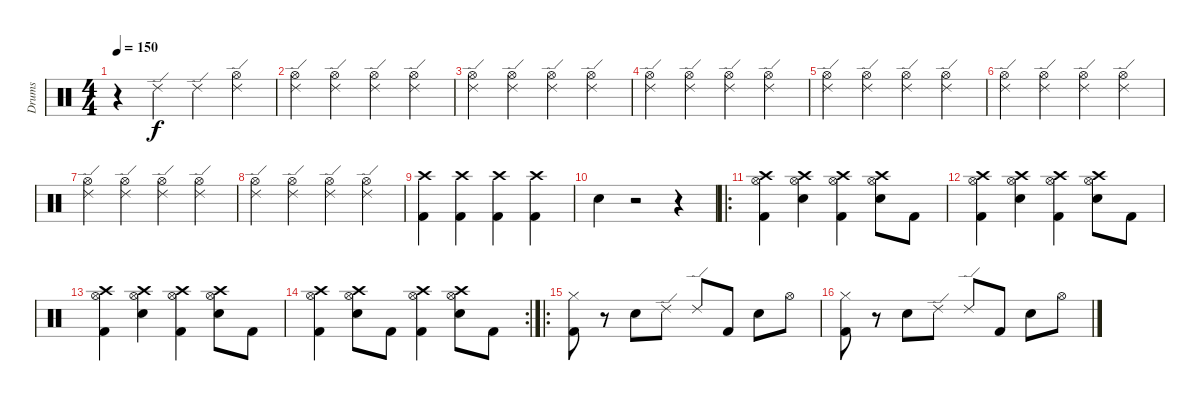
\track ("Drums" "Drums") {instrument percussion}
\staff {score}
\articulation defaults
\ts (4 4)
\tempo 150
\clef neutral
\ks c
r.4{dy f} "Ride (edge) 2".4 "Ride (edge) 2".4 ("Ride (edge) 2" "Hi-Hat (open)").4 |
("Ride (edge) 2" "Hi-Hat (open)").4 ("Ride (edge) 2" "Hi-Hat (open)").4 ("Ride (edge) 2" "Hi-Hat (open)").4 ("Ride (edge) 2" "Hi-Hat (open)").4 |
("Ride (edge) 2" "Hi-Hat (open)").4 ("Ride (edge) 2" "Hi-Hat (open)").4 ("Ride (edge) 2" "Hi-Hat (open)").4 ("Ride (edge) 2" "Hi-Hat (open)").4 |
("Ride (edge) 2" "Hi-Hat (open)").4 ("Ride (edge) 2" "Hi-Hat (open)").4 ("Ride (edge) 2" "Hi-Hat (open)").4 ("Ride (edge) 2" "Hi-Hat (open)").4 |
("Ride (edge) 2" "Hi-Hat (open)").4 ("Ride (edge) 2" "Hi-Hat (open)").4 ("Ride (edge) 2" "Hi-Hat (open)").4 ("Ride (edge) 2" "Hi-Hat (open)").4 |
("Ride (edge) 2" "Hi-Hat (open)").4 ("Ride (edge) 2" "Hi-Hat (open)").4 ("Ride (edge) 2" "Hi-Hat (open)").4 ("Ride (edge) 2" "Hi-Hat (open)").4 |
("Ride (edge) 2" "Hi-Hat (open)").4 ("Ride (edge) 2" "Hi-Hat (open)").4 ("Ride (edge) 2" "Hi-Hat (open)").4 ("Ride (edge) 2" "Hi-Hat (open)").4 |
("Ride (edge) 2" "Hi-Hat (open)").4 ("Ride (edge) 2" "Hi-Hat (open)").4 ("Ride (edge) 2" "Hi-Hat (open)").4 ("Ride (edge) 2" "Hi-Hat (open)").4 |
("Crash high (hit)" "Kick (hit) 2").4 ("Crash high (hit)" "Kick (hit) 2").4 ("Crash high (hit)" "Kick (hit) 2").4 ("Crash high (hit)" "Kick (hit) 2").4 |
"Snare (hit) 2".4 r.2 r.4 |
\ro
("Crash high (hit)" "Kick (hit) 2" "Hi-Hat (open)").4 ("Crash high (hit)" "Electric Snare (hit)" "Hi-Hat (open)").4 ("Crash high (hit)" "Kick (hit) 2" "Hi-Hat (open)").4 ("Crash high (hit)" "Electric Snare (hit)" "Hi-Hat (open)").8 "Kick (hit) 2".8 |
("Crash high (hit)" "Kick (hit) 2" "Hi-Hat (open)").4 ("Crash high (hit)" "Electric Snare (hit)" "Hi-Hat (open)").4 ("Crash high (hit)" "Kick (hit) 2" "Hi-Hat (open)").4 ("Crash high (hit)" "Electric Snare (hit)" "Hi-Hat (open)").8 "Kick (hit) 2".8 |
("Crash high (hit)" "Kick (hit) 2" "Hi-Hat (open)").4 ("Crash high (hit)" "Electric Snare (hit)" "Hi-Hat (open)").4 ("Crash high (hit)" "Kick (hit) 2" "Hi-Hat (open)").4 ("Crash high (hit)" "Electric Snare (hit)" "Hi-Hat (open)").8 "Kick (hit) 2".8 |
\rc 2
("Crash high (hit)" "Kick (hit) 2" "Hi-Hat (open)").4 ("Crash high (hit)" "Electric Snare (hit)" "Hi-Hat (open)").8 "Kick (hit) 2".8 ("Crash high (hit)" "Kick (hit) 2" "Hi-Hat (open)").4 ("Crash high (hit)" "Electric Snare (hit)" "Hi-Hat (open)").8 "Kick (hit) 2".8 |
\ro
("Hi-Hat (closed)" "Kick (hit) 2").8 r.8 "Electric Snare (hit)".8 "Ride (edge) 2".8 "Ride (edge) 2".8 "Kick (hit) 2".8 "Electric Snare (hit)".8 "Hi-Hat (open)".8 |
("Hi-Hat (closed)" "Kick (hit) 2").8 r.8 "Electric Snare (hit)".8 "Ride (edge) 2".8 "Ride (edge) 2".8 "Kick (hit) 2".8 "Electric Snare (hit)".8 "Hi-Hat (open)".8
